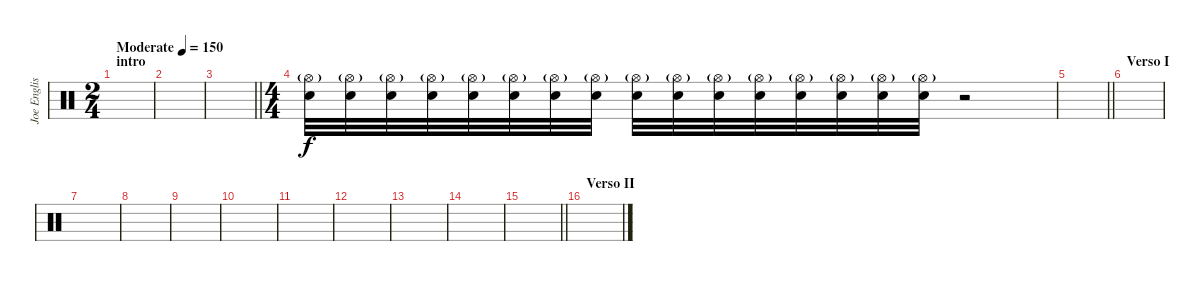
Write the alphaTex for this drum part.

\track ("Joe English" "Joe Englis") {instrument percussion}
\staff {score}
\articulation defaults
\ts (2 4)
\section ("" "intro")
\tempo (150 "Moderate")
\clef neutral
\ks c
|
|
\barLineRight lightlight
|
\ts (4 4)
\section ("" "")
("Hi-Hat (open)"{g} "Snare (hit) 2").32{volume 0} ("Hi-Hat (open)"{g} "Snare (hit) 2").32{volume 13} ("Hi-Hat (open)"{g} "Snare (hit) 2").32 ("Hi-Hat (open)"{g} "Snare (hit) 2").32 ("Hi-Hat (open)"{g} "Snare (hit) 2").32 ("Hi-Hat (open)"{g} "Snare (hit) 2").32 ("Hi-Hat (open)"{g} "Snare (hit) 2").32 ("Hi-Hat (open)"{g} "Snare (hit) 2").32 ("Hi-Hat (open)"{g} "Snare (hit) 2").32 ("Hi-Hat (open)"{g} "Snare (hit) 2").32 ("Hi-Hat (open)"{g} "Snare (hit) 2").32 ("Hi-Hat (open)"{g} "Snare (hit) 2").32 ("Hi-Hat (open)"{g} "Snare (hit) 2").32 ("Hi-Hat (open)"{g} "Snare (hit) 2").32 ("Hi-Hat (open)"{g} "Snare (hit) 2").32 ("Hi-Hat (open)"{g} "Snare (hit) 2").32 r.2 |
\barLineRight lightlight
|
\section ("" "Verso I")
|
|
|
|
|
|
|
|
|
\barLineRight lightlight
|
\section ("" "Verso II")
